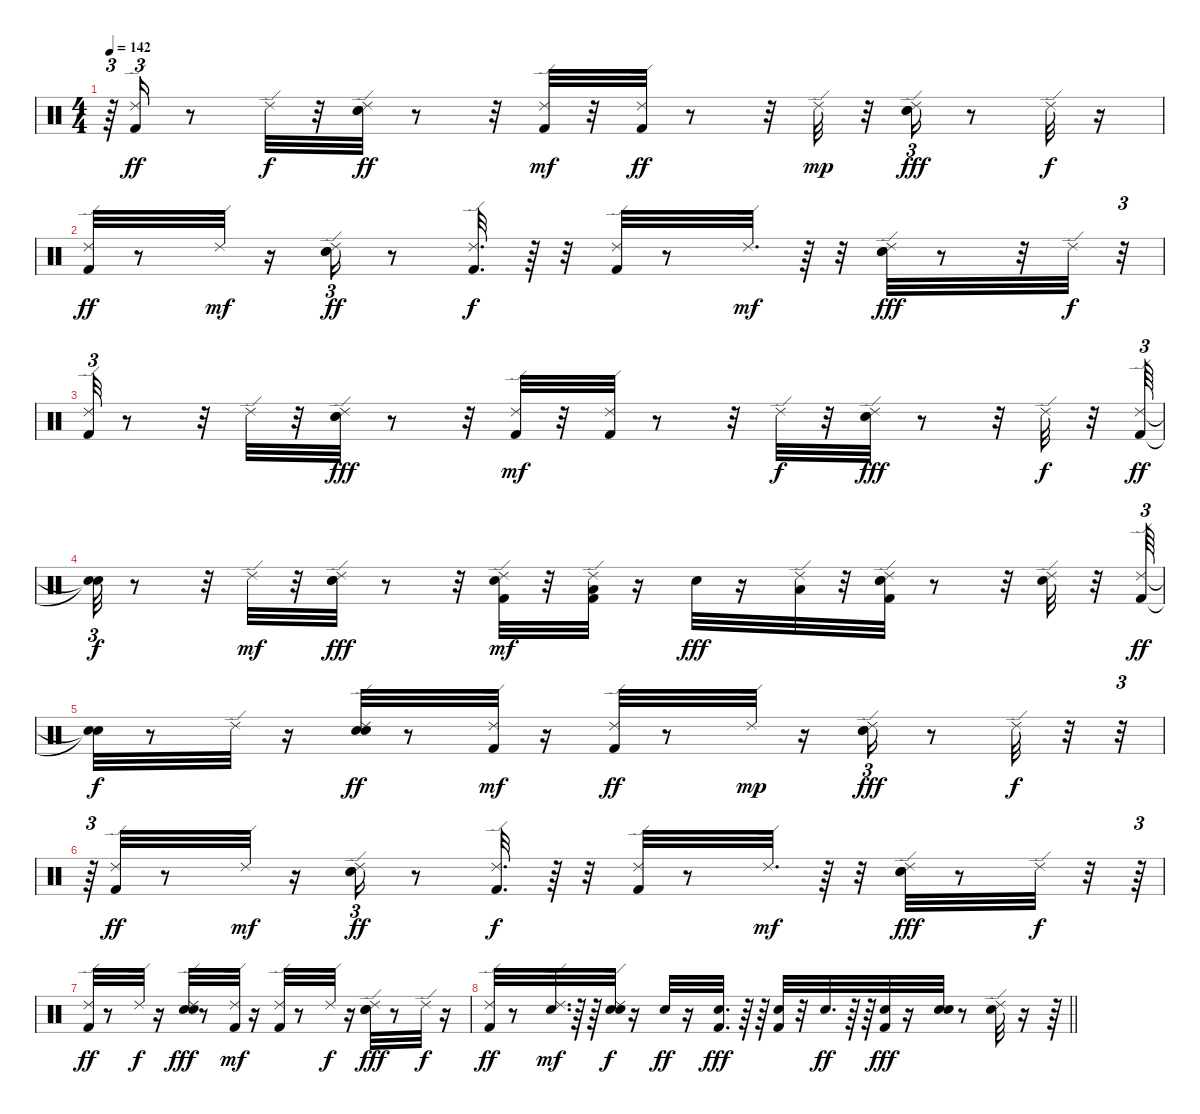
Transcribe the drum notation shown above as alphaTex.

\track "" {instrument percussion}
\staff {score}
\articulation defaults
\ts (4 4)
\tempo 142
\clef neutral
\ks c
r.64{tu (3 2) dy fff} ("Ride (edge) 2" "Kick (hit) 2").16{tu (3 2) dy ff} r.8 "Ride (edge) 2".32{dy f} r.32 ("Hand Clap (hit)" "Electric Snare (hit)" "Ride (edge) 2").32{dy ff} r.8 r.32 ("Kick (hit) 2" "Ride (edge) 2").32{dy mf} r.32 ("Kick (hit) 2" "Ride (edge) 2").32{dy ff} r.8 r.32 "Ride (edge) 2".32{dy mp} r.32 ("Hand Clap (hit)" "Electric Snare (hit)" "Ride (edge) 2").16{tu (3 2) dy fff} r.8 "Ride (edge) 2".32{dy f} r.16 |
("Kick (hit) 2" "Ride (edge) 2").32{dy ff} r.8 "Ride (edge) 2".32{dy mf} r.16 ("Hand Clap (hit)" "Electric Snare (hit)" "Ride (edge) 2").16{tu (3 2) dy ff} r.8 ("Kick (hit) 2" "Ride (edge) 2").32{d dy f} r.64 r.32 ("Kick (hit) 2" "Ride (edge) 2").32 r.8 "Ride (edge) 2".32{d dy mf} r.64 r.32 ("Hand Clap (hit)" "Electric Snare (hit)" "Ride (edge) 2").32{dy fff} r.8 r.32 "Ride (edge) 2".32{dy f} r.32{tu (3 2)} |
("Ride (edge) 2" "Kick (hit) 2").32{tu (3 2)} r.8 r.32 "Ride (edge) 2".32 r.32 ("Electric Snare (hit)" "Hand Clap (hit)" "Ride (edge) 2").32{dy fff} r.8 r.32 ("Kick (hit) 2" "Ride (edge) 2").32{dy mf} r.32 ("Kick (hit) 2" "Ride (edge) 2").32 r.8 r.32 "Ride (edge) 2".32{dy f} r.32 ("Electric Snare (hit)" "Hand Clap (hit)" "Ride (edge) 2").32{dy fff} r.8 r.32 "Ride (edge) 2".32{dy f} r.32 ("Kick (hit) 2" "Ride (edge) 2").64{tu (3 2) dy ff} |
("Snare (hit)"{t} "Snare (hit)"{t}).32{tu (3 2) dy f} r.8 r.32 "Ride (edge) 2".32{dy mf} r.32 ("Hand Clap (hit)" "Electric Snare (hit)" "Ride (edge) 2").32{dy fff} r.8 r.32 ("Kick (hit) 2" "Electric Snare (hit)" "Ride (edge) 2").32{dy mf} r.32 ("Low Tom (hit)" "Kick (hit) 2" "Ride (edge) 2").32 r.16 "Electric Snare (hit)".32{dy fff} r.16 ("Low Tom (hit)" "Ride (edge) 2").32 r.32 ("Electric Snare (hit)" "Kick (hit) 2" "Hand Clap (hit)" "Ride (edge) 2").32 r.8 r.32 ("Electric Snare (hit)" "Ride (edge) 2").32 r.32 ("Ride (edge) 2" "Kick (hit) 2").64{tu (3 2) dy ff} |
("Snare (hit)"{t} "Snare (hit)"{t}).32{dy f} r.8 "Ride (edge) 2".32 r.16 ("Hand Clap (hit)" "Electric Snare (hit)" "Ride (edge) 2").32{dy ff} r.8 ("Kick (hit) 2" "Ride (edge) 2").32{dy mf} r.16 ("Kick (hit) 2" "Ride (edge) 2").32{dy ff} r.8 "Ride (edge) 2".32{dy mp} r.16 ("Hand Clap (hit)" "Electric Snare (hit)" "Ride (edge) 2").16{tu (3 2) dy fff} r.8 "Ride (edge) 2".32{dy f} r.32 r.32{tu (3 2)} |
r.64{tu (3 2)} ("Kick (hit) 2" "Ride (edge) 2").32{dy ff} r.8 "Ride (edge) 2".32{dy mf} r.16 ("Hand Clap (hit)" "Electric Snare (hit)" "Ride (edge) 2").16{tu (3 2) dy ff} r.8 ("Kick (hit) 2" "Ride (edge) 2").32{d dy f} r.64 r.32 ("Kick (hit) 2" "Ride (edge) 2").32 r.8 "Ride (edge) 2".32{d dy mf} r.64 r.32 ("Hand Clap (hit)" "Electric Snare (hit)" "Ride (edge) 2").32{dy fff} r.8 "Ride (edge) 2".32{dy f} r.32 r.64{tu (3 2)} |
("Ride (edge) 2" "Kick (hit) 2").32{dy ff} r.8 "Ride (edge) 2".32{dy f} r.16 ("Electric Snare (hit)" "Hand Clap (hit)" "Ride (edge) 2").32{dy fff} r.8 ("Kick (hit) 2" "Ride (edge) 2").32{dy mf} r.16 ("Kick (hit) 2" "Ride (edge) 2").32 r.8 "Ride (edge) 2".32{dy f} r.16 ("Electric Snare (hit)" "Hand Clap (hit)" "Ride (edge) 2").32{dy fff} r.8 "Ride (edge) 2".32{dy f} r.16 |
\barLineRight lightlight
("Kick (hit) 2" "Ride (edge) 2").32{dy ff} r.8 ("Electric Snare (hit)" "Ride (edge) 2").32{d dy mf} r.64 r.64 ("Electric Snare (hit)" "Hand Clap (hit)" "Ride (edge) 2").32{dy f} r.16 "Electric Snare (hit)".32{dy ff} r.16 ("Kick (hit) 2" "Electric Snare (hit)").32{d dy fff} r.64 r.64 ("Electric Snare (hit)" "Kick (hit) 2").32 r.32 "Electric Snare (hit)".32{d dy ff} r.64 r.64 ("Electric Snare (hit)" "Kick (hit) 2").32{dy fff} r.16 ("Hand Clap (hit)" "Electric Snare (hit)").32 r.8 ("Ride (edge) 2" "Electric Snare (hit)").32 r.16 r.64
